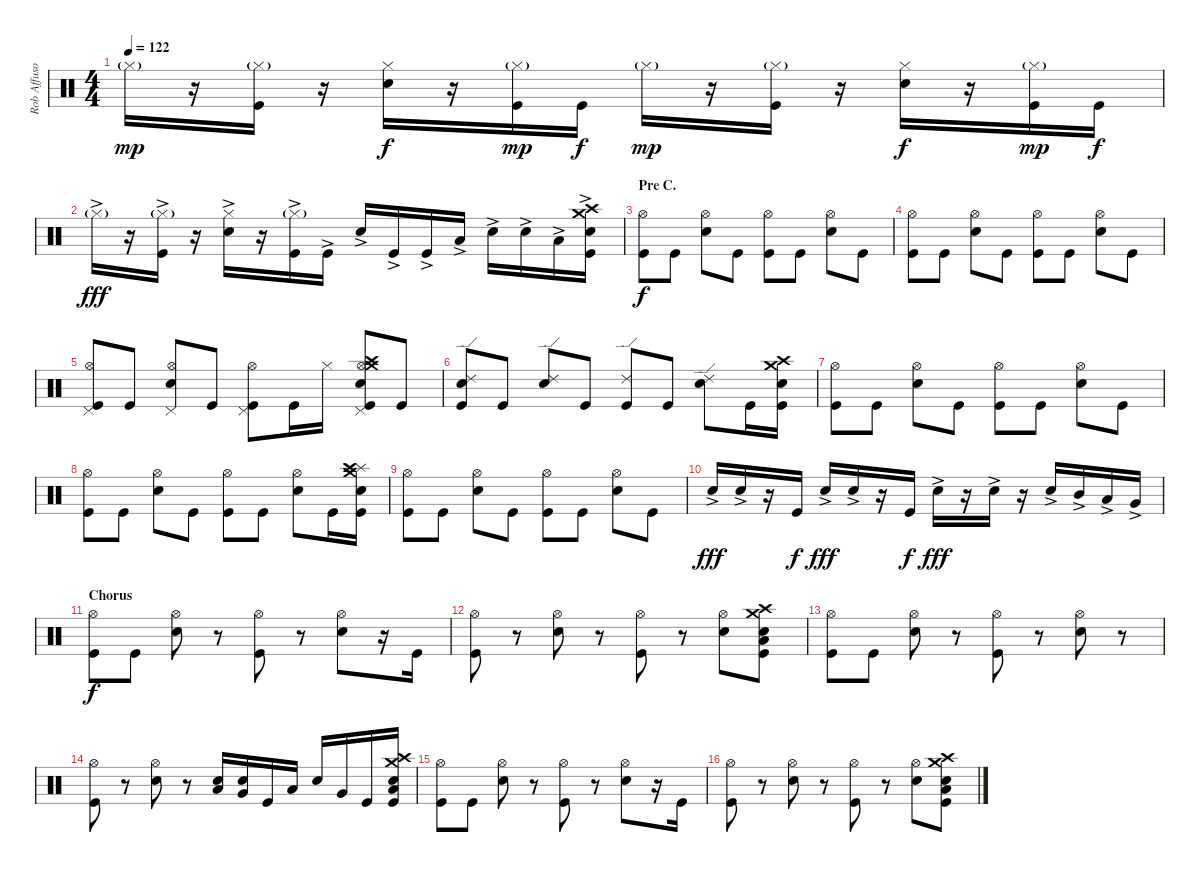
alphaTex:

\track ("Rob Affuso - Drums" "Rob Affuso") {instrument percussion}
\staff {score}
\articulation defaults
\ts (4 4)
\tempo 122
\clef neutral
\ks c "Hi-Hat (closed)"{g}.16{dy mp}
r.16 ("Hi-Hat (closed)"{g} "Kick (hit)").16 r.16 ("Hi-Hat (closed)" "Snare (hit) 2").16{dy f} r.16 ("Hi-Hat (closed)"{g} "Kick (hit)").16{dy mp} "Kick (hit)".16{dy f} "Hi-Hat (closed)"{g}.16{dy mp} r.16 ("Hi-Hat (closed)"{g} "Kick (hit)").16 r.16 ("Hi-Hat (closed)" "Snare (hit) 2").16{dy f} r.16 ("Hi-Hat (closed)"{g} "Kick (hit)").16{dy mp} "Kick (hit)".16{dy f} |
"Hi-Hat (closed)"{g ac}.16{dy fff volume 16} r.16 ("Hi-Hat (closed)"{g ac} "Kick (hit)"{ac}).16 r.16 ("Hi-Hat (closed)"{ac} "Snare (hit) 2"{ac}).16 r.16 ("Hi-Hat (closed)"{g ac} "Kick (hit)"{ac}).16 "Kick (hit)"{ac}.16 "Snare (hit) 2"{ac}.16 "Kick (hit)"{ac}.16 "Kick (hit)"{ac}.16 "Low Tom (hit)"{ac}.16 "Snare (hit) 2"{ac}.16 "Snare (hit) 2"{ac}.16 "Low Tom (hit)"{ac}.16 ("Crash high (hit)" "Crash medium (hit)" "Snare (hit) 2"{ac} "Kick (hit)").16 |
\section ("" "Pre C.")
("Hi-Hat (open)" "Kick (hit)").8{dy f volume 13} "Kick (hit)".8 ("Hi-Hat (open)" "Snare (hit) 2").8 "Kick (hit)".8 ("Hi-Hat (open)" "Kick (hit)").8 "Kick (hit)".8 ("Hi-Hat (open)" "Snare (hit) 2").8 "Kick (hit)".8 |
("Hi-Hat (open)" "Kick (hit)").8 "Kick (hit)".8 ("Hi-Hat (open)" "Snare (hit) 2").8 "Kick (hit)".8 ("Hi-Hat (open)" "Kick (hit)").8 "Kick (hit)".8 ("Hi-Hat (open)" "Snare (hit) 2").8 "Kick (hit)".8 |
("Hi-Hat (open)" "Pedal Hi-Hat (hit)" "Kick (hit)").8 "Kick (hit)".8 ("Hi-Hat (open)" "Pedal Hi-Hat (hit)" "Snare (hit) 2").8 "Kick (hit)".8 ("Hi-Hat (open)" "Pedal Hi-Hat (hit)" "Kick (hit)").8 "Kick (hit)".16 "Hi-Hat (closed)".16 ("Hi-Hat (open)" "Pedal Hi-Hat (hit)" "Crash medium (hit)" "Snare (hit) 2" "Crash high (hit)" "Kick (hit)").8 "Kick (hit)".8 |
("Ride (edge) 2" "Snare (hit) 2" "Kick (hit)").8 "Kick (hit)".8 ("Ride (edge) 2" "Snare (hit) 2").8 "Kick (hit)".8 ("Ride (edge) 2" "Kick (hit)").8 "Kick (hit)".8 ("Ride (edge) 2" "Snare (hit) 2").8 "Kick (hit)".16 ("Crash medium (hit)" "Crash high (hit)" "Snare (hit) 2" "Kick (hit)").16 |
("Hi-Hat (open)" "Kick (hit)").8 "Kick (hit)".8 ("Hi-Hat (open)" "Snare (hit) 2").8 "Kick (hit)".8 ("Hi-Hat (open)" "Kick (hit)").8 "Kick (hit)".8 ("Hi-Hat (open)" "Snare (hit) 2").8 "Kick (hit)".8 |
("Hi-Hat (open)" "Kick (hit)").8 "Kick (hit)".8 ("Hi-Hat (open)" "Snare (hit) 2").8 "Kick (hit)".8 ("Hi-Hat (open)" "Kick (hit)").8 "Kick (hit)".8 ("Hi-Hat (open)" "Snare (hit) 2").8 "Kick (hit)".16 ("Splash (hit)" "Crash medium (hit)" "Crash high (hit)" "Snare (hit) 2" "Kick (hit)").16 |
("Hi-Hat (open)" "Kick (hit)").8 "Kick (hit)".8 ("Hi-Hat (open)" "Snare (hit) 2").8 "Kick (hit)".8 ("Hi-Hat (open)" "Kick (hit)").8 "Kick (hit)".8 ("Hi-Hat (open)" "Snare (hit) 2").8 "Kick (hit)".8 |
"Snare (hit) 2"{ac}.16{dy fff} "Snare (hit) 2"{ac}.16 r.16 "Kick (hit)".16{dy f} "Snare (hit) 2"{ac}.16{dy fff} "Snare (hit) 2"{ac}.16 r.16 "Kick (hit)".16{dy f} "Snare (hit) 2"{ac}.16{dy fff} r.16 "Snare (hit) 2"{ac}.16 r.16 "Snare (hit) 2"{ac}.16 "Mid Tom (hit)"{ac}.16 "Low Tom (hit)"{ac}.16 "Very Low Tom (hit)"{ac}.16 |
\section ("" "Chorus")
("Hi-Hat (open)" "Kick (hit)").8{dy f} "Kick (hit)".8 ("Hi-Hat (open)" "Snare (hit) 2").8 r.8 ("Hi-Hat (open)" "Kick (hit)").8 r.8 ("Hi-Hat (open)" "Snare (hit) 2").8 r.16 "Kick (hit)".16 |
("Hi-Hat (open)" "Kick (hit)").8 r.8 ("Hi-Hat (open)" "Snare (hit) 2").8 r.8 ("Hi-Hat (open)" "Kick (hit)").8 r.8 ("Hi-Hat (open)" "Snare (hit) 2").8 ("Crash medium (hit)" "Crash high (hit)" "Snare (hit) 2" "Low Floor Tom (hit)" "Kick (hit)").8 |
("Hi-Hat (open)" "Kick (hit)").8 "Kick (hit)".8 ("Hi-Hat (open)" "Snare (hit) 2").8 r.8 ("Hi-Hat (open)" "Kick (hit)").8 r.8 ("Hi-Hat (open)" "Snare (hit) 2").8 r.8 |
("Hi-Hat (open)" "Kick (hit)").8 r.8 ("Hi-Hat (open)" "Snare (hit) 2").8 r.8 ("Low Tom (hit)" "Snare (hit) 2").16 ("Very Low Tom (hit)" "Snare (hit) 2").16 "Kick (hit)".16 "Low Tom (hit)".16 "Snare (hit) 2".16 "Very Low Tom (hit)".16 "Kick (hit)".16 ("Crash high (hit)" "Crash medium (hit)" "Snare (hit) 2" "Low Floor Tom (hit)" "Kick (hit)").16 |
("Hi-Hat (open)" "Kick (hit)").8 "Kick (hit)".8 ("Hi-Hat (open)" "Snare (hit) 2").8 r.8 ("Hi-Hat (open)" "Kick (hit)").8 r.8 ("Hi-Hat (open)" "Snare (hit) 2").8 r.16 "Kick (hit)".16 |
("Hi-Hat (open)" "Kick (hit)").8 r.8 ("Hi-Hat (open)" "Snare (hit) 2").8 r.8 ("Hi-Hat (open)" "Kick (hit)").8 r.8 ("Hi-Hat (open)" "Snare (hit) 2").8 ("Crash medium (hit)" "Crash high (hit)" "Snare (hit) 2" "Low Floor Tom (hit)" "Kick (hit)").8
